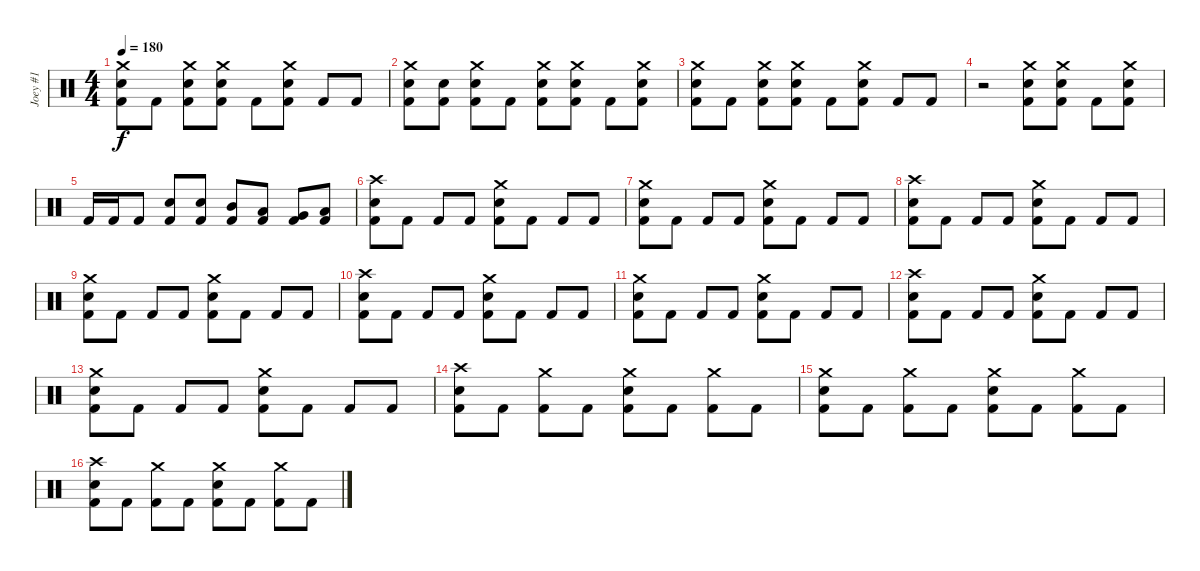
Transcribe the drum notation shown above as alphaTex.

\track ("Joey #1" "Joey #1") {instrument percussion}
\staff {score}
\articulation defaults
\ts (4 4)
\tempo 180
\clef neutral
\ks c
("Crash medium (hit)" "Electric Snare (hit)" "Kick (hit) 2").8{dy f} "Kick (hit) 2".8 ("Crash medium (hit)" "Electric Snare (hit)" "Kick (hit) 2").8 ("Crash medium (hit)" "Electric Snare (hit)" "Kick (hit) 2").8 "Kick (hit) 2".8 ("Crash medium (hit)" "Electric Snare (hit)" "Kick (hit) 2").8 "Kick (hit) 2".8 "Kick (hit) 2".8 |
("Crash medium (hit)" "Electric Snare (hit)" "Kick (hit) 2").8 ("Electric Snare (hit)" "Kick (hit) 2").8 ("Crash medium (hit)" "Electric Snare (hit)" "Kick (hit) 2").8 "Kick (hit) 2".8 ("Crash medium (hit)" "Electric Snare (hit)" "Kick (hit) 2").8 ("Crash medium (hit)" "Electric Snare (hit)" "Kick (hit) 2").8 "Kick (hit) 2".8 ("Crash medium (hit)" "Electric Snare (hit)" "Kick (hit) 2").8 |
("Crash medium (hit)" "Electric Snare (hit)" "Kick (hit) 2").8 "Kick (hit) 2".8 ("Crash medium (hit)" "Electric Snare (hit)" "Kick (hit) 2").8 ("Crash medium (hit)" "Electric Snare (hit)" "Kick (hit) 2").8 "Kick (hit) 2".8 ("Crash medium (hit)" "Electric Snare (hit)" "Kick (hit) 2").8 "Kick (hit) 2".8 "Kick (hit) 2".8 |
r.2 ("Crash medium (hit)" "Electric Snare (hit)" "Kick (hit) 2").8 ("Crash medium (hit)" "Electric Snare (hit)" "Kick (hit) 2").8 "Kick (hit) 2".8 ("Crash medium (hit)" "Electric Snare (hit)" "Kick (hit) 2").8 |
"Kick (hit) 2".16 "Kick (hit) 2".16 "Kick (hit) 2".8 ("Electric Snare (hit)" "Kick (hit) 2").8 ("Electric Snare (hit)" "Kick (hit) 2").8 ("Mid Tom (hit)" "Kick (hit) 2").8 ("Low Tom (hit)" "Kick (hit) 2").8 ("Very Low Tom (hit)" "Kick (hit) 2").8 ("Low Floor Tom (hit)" "Kick (hit) 2").8 |
("Crash high (hit)" "Electric Snare (hit)" "Kick (hit) 2").8 "Kick (hit) 2".8 "Kick (hit) 2".8 "Kick (hit) 2".8 ("Crash medium (hit)" "Electric Snare (hit)" "Kick (hit) 2").8 "Kick (hit) 2".8 "Kick (hit) 2".8 "Kick (hit) 2".8 |
("Crash medium (hit)" "Electric Snare (hit)" "Kick (hit) 2").8 "Kick (hit) 2".8 "Kick (hit) 2".8 "Kick (hit) 2".8 ("Crash medium (hit)" "Electric Snare (hit)" "Kick (hit) 2").8 "Kick (hit) 2".8 "Kick (hit) 2".8 "Kick (hit) 2".8 |
("Crash high (hit)" "Electric Snare (hit)" "Kick (hit) 2").8 "Kick (hit) 2".8 "Kick (hit) 2".8 "Kick (hit) 2".8 ("Crash medium (hit)" "Electric Snare (hit)" "Kick (hit) 2").8 "Kick (hit) 2".8 "Kick (hit) 2".8 "Kick (hit) 2".8 |
("Crash medium (hit)" "Electric Snare (hit)" "Kick (hit) 2").8 "Kick (hit) 2".8 "Kick (hit) 2".8 "Kick (hit) 2".8 ("Crash medium (hit)" "Electric Snare (hit)" "Kick (hit) 2").8 "Kick (hit) 2".8 "Kick (hit) 2".8 "Kick (hit) 2".8 |
("Crash high (hit)" "Electric Snare (hit)" "Kick (hit) 2").8 "Kick (hit) 2".8 "Kick (hit) 2".8 "Kick (hit) 2".8 ("Crash medium (hit)" "Electric Snare (hit)" "Kick (hit) 2").8 "Kick (hit) 2".8 "Kick (hit) 2".8 "Kick (hit) 2".8 |
("Crash medium (hit)" "Electric Snare (hit)" "Kick (hit) 2").8 "Kick (hit) 2".8 "Kick (hit) 2".8 "Kick (hit) 2".8 ("Crash medium (hit)" "Electric Snare (hit)" "Kick (hit) 2").8 "Kick (hit) 2".8 "Kick (hit) 2".8 "Kick (hit) 2".8 |
("Crash high (hit)" "Electric Snare (hit)" "Kick (hit) 2").8 "Kick (hit) 2".8 "Kick (hit) 2".8 "Kick (hit) 2".8 ("Crash medium (hit)" "Electric Snare (hit)" "Kick (hit) 2").8 "Kick (hit) 2".8 "Kick (hit) 2".8 "Kick (hit) 2".8 |
("Crash medium (hit)" "Electric Snare (hit)" "Kick (hit) 2").8 "Kick (hit) 2".8 "Kick (hit) 2".8 "Kick (hit) 2".8 ("Crash medium (hit)" "Electric Snare (hit)" "Kick (hit) 2").8 "Kick (hit) 2".8 "Kick (hit) 2".8 "Kick (hit) 2".8 |
("Crash high (hit)" "Electric Snare (hit)" "Kick (hit) 2").8 "Kick (hit) 2".8 ("Crash medium (hit)" "Kick (hit) 2").8 "Kick (hit) 2".8 ("Crash medium (hit)" "Electric Snare (hit)" "Kick (hit) 2").8 "Kick (hit) 2".8 ("Crash medium (hit)" "Kick (hit) 2").8 "Kick (hit) 2".8 |
("Crash medium (hit)" "Electric Snare (hit)" "Kick (hit) 2").8 "Kick (hit) 2".8 ("Crash medium (hit)" "Kick (hit) 2").8 "Kick (hit) 2".8 ("Crash medium (hit)" "Electric Snare (hit)" "Kick (hit) 2").8 "Kick (hit) 2".8 ("Crash medium (hit)" "Kick (hit) 2").8 "Kick (hit) 2".8 |
("Crash high (hit)" "Electric Snare (hit)" "Kick (hit) 2").8 "Kick (hit) 2".8 ("Crash medium (hit)" "Kick (hit) 2").8 "Kick (hit) 2".8 ("Crash medium (hit)" "Electric Snare (hit)" "Kick (hit) 2").8 "Kick (hit) 2".8 ("Crash medium (hit)" "Kick (hit) 2").8 "Kick (hit) 2".8
